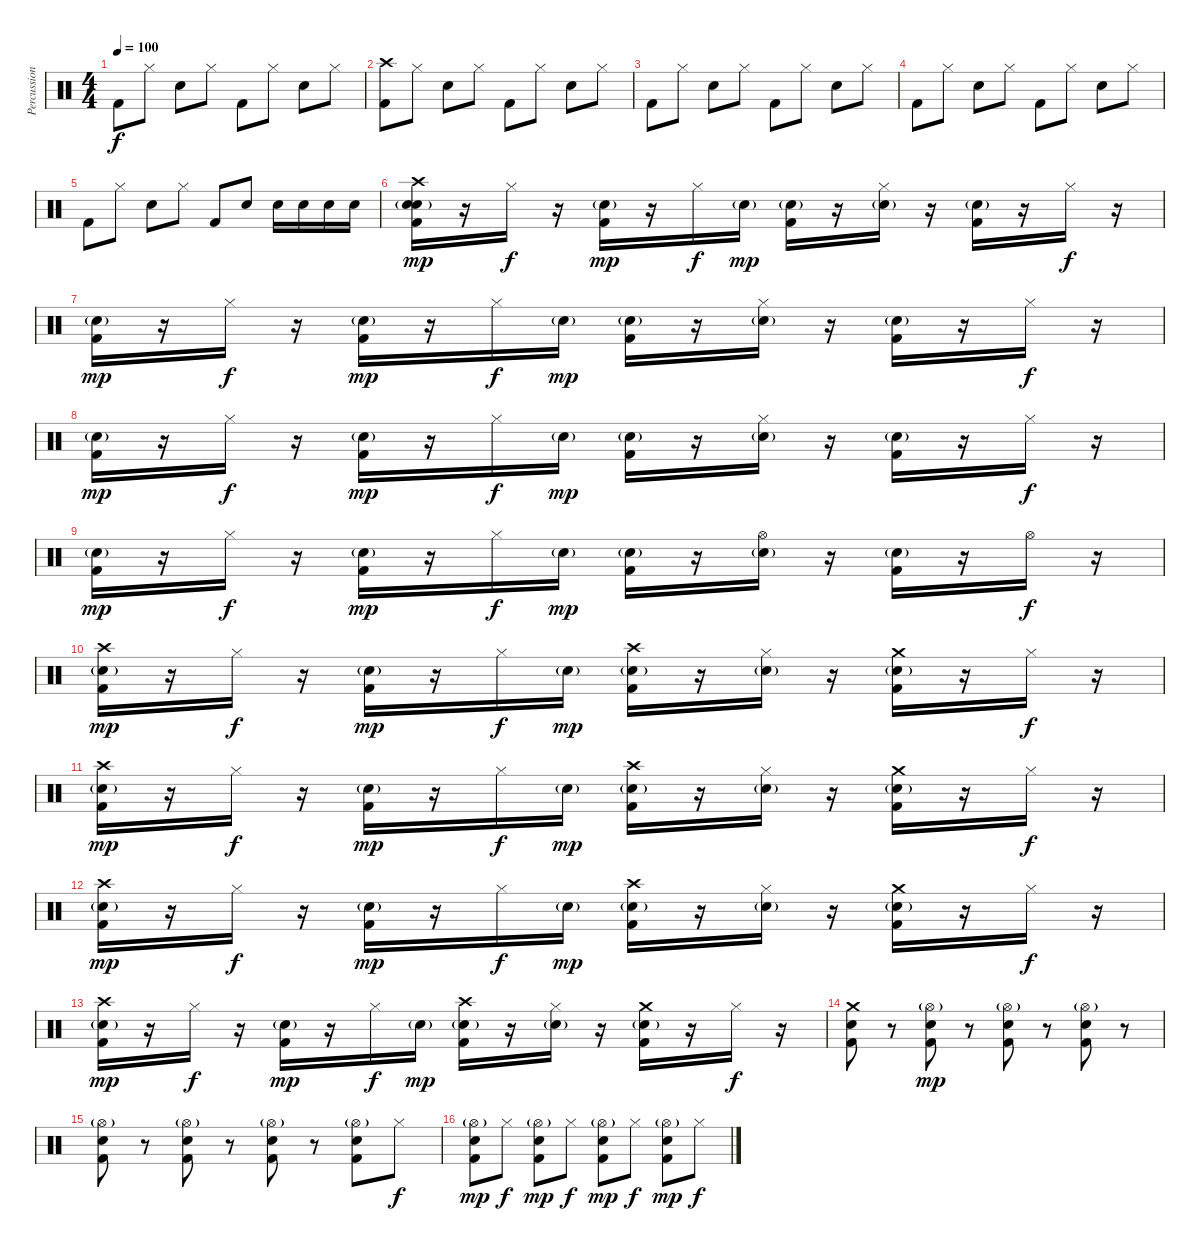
\track ("Percussions" "Percussion") {instrument percussion}
\staff {score}
\articulation defaults
\ts (4 4)
\tempo 100
\clef neutral
\ks c "Kick (hit) 2".8{dy f} "Hi-Hat (closed)".8 "Electric Snare (hit)".8 "Hi-Hat (closed)".8 "Kick (hit) 2".8 "Hi-Hat (closed)".8 "Electric Snare (hit)".8 "Hi-Hat (closed)".8
|
("Crash high (hit)" "Kick (hit) 2").8 "Hi-Hat (closed)".8 "Electric Snare (hit)".8 "Hi-Hat (closed)".8 "Kick (hit) 2".8 "Hi-Hat (closed)".8 "Electric Snare (hit)".8 "Hi-Hat (closed)".8 |
"Kick (hit) 2".8 "Hi-Hat (closed)".8 "Electric Snare (hit)".8 "Hi-Hat (closed)".8 "Kick (hit) 2".8 "Hi-Hat (closed)".8 "Electric Snare (hit)".8 "Hi-Hat (closed)".8 |
"Kick (hit) 2".8 "Hi-Hat (closed)".8 "Electric Snare (hit)".8 "Hi-Hat (closed)".8 "Kick (hit) 2".8 "Hi-Hat (closed)".8 "Electric Snare (hit)".8 "Hi-Hat (closed)".8 |
"Kick (hit) 2".8 "Hi-Hat (closed)".8 "Electric Snare (hit)".8 "Hi-Hat (closed)".8 "Kick (hit) 2".8 "Electric Snare (hit)".8 "Electric Snare (hit)".16 "Electric Snare (hit)".16 "Electric Snare (hit)".16 "Electric Snare (hit)".16 |
("Electric Snare (hit)" "Electric Snare (hit)"{g} "Crash high (hit)" "Kick (hit) 2").16{dy mp} r.16 "Hi-Hat (closed)".16{dy f} r.16 ("Electric Snare (hit)"{g} "Kick (hit) 2").16{dy mp} r.16 "Hi-Hat (closed)".16{dy f} "Electric Snare (hit)"{g}.16{dy mp} ("Electric Snare (hit)"{g} "Kick (hit) 2").16 r.16 ("Electric Snare (hit)"{g} "Hi-Hat (closed)").16 r.16 ("Electric Snare (hit)"{g} "Kick (hit) 2").16 r.16 "Hi-Hat (closed)".16{dy f} r.16 |
("Electric Snare (hit)"{g} "Kick (hit) 2").16{dy mp} r.16 "Hi-Hat (closed)".16{dy f} r.16 ("Electric Snare (hit)"{g} "Kick (hit) 2").16{dy mp} r.16 "Hi-Hat (closed)".16{dy f} "Electric Snare (hit)"{g}.16{dy mp} ("Electric Snare (hit)"{g} "Kick (hit) 2").16 r.16 ("Electric Snare (hit)"{g} "Hi-Hat (closed)").16 r.16 ("Electric Snare (hit)"{g} "Kick (hit) 2").16 r.16 "Hi-Hat (closed)".16{dy f} r.16 |
("Electric Snare (hit)"{g} "Kick (hit) 2").16{dy mp} r.16 "Hi-Hat (closed)".16{dy f} r.16 ("Electric Snare (hit)"{g} "Kick (hit) 2").16{dy mp} r.16 "Hi-Hat (closed)".16{dy f} "Electric Snare (hit)"{g}.16{dy mp} ("Electric Snare (hit)"{g} "Kick (hit) 2").16 r.16 ("Electric Snare (hit)"{g} "Hi-Hat (closed)").16 r.16 ("Electric Snare (hit)"{g} "Kick (hit) 2").16 r.16 "Hi-Hat (closed)".16{dy f} r.16 |
("Electric Snare (hit)"{g} "Kick (hit) 2").16{dy mp} r.16 "Hi-Hat (closed)".16{dy f} r.16 ("Electric Snare (hit)"{g} "Kick (hit) 2").16{dy mp} r.16 "Hi-Hat (closed)".16{dy f} "Electric Snare (hit)"{g}.16{dy mp} ("Electric Snare (hit)"{g} "Kick (hit) 2").16 r.16 ("Electric Snare (hit)"{g} "Hi-Hat (open)").16 r.16 ("Electric Snare (hit)"{g} "Kick (hit) 2").16 r.16 "Hi-Hat (open)".16{dy f} r.16 |
("Electric Snare (hit)"{g} "Crash high (hit)" "Kick (hit) 2").16{dy mp} r.16 "Hi-Hat (closed)".16{dy f} r.16 ("Electric Snare (hit)"{g} "Kick (hit) 2").16{dy mp} r.16 "Hi-Hat (closed)".16{dy f} "Electric Snare (hit)"{g}.16{dy mp} ("Electric Snare (hit)"{g} "Crash high (hit)" "Kick (hit) 2").16 r.16 ("Electric Snare (hit)"{g} "Hi-Hat (closed)").16 r.16 ("Electric Snare (hit)"{g} "Crash medium (hit)" "Kick (hit) 2").16 r.16 "Hi-Hat (closed)".16{dy f} r.16 |
("Electric Snare (hit)"{g} "Crash high (hit)" "Kick (hit) 2").16{dy mp} r.16 "Hi-Hat (closed)".16{dy f} r.16 ("Electric Snare (hit)"{g} "Kick (hit) 2").16{dy mp} r.16 "Hi-Hat (closed)".16{dy f} "Electric Snare (hit)"{g}.16{dy mp} ("Electric Snare (hit)"{g} "Crash high (hit)" "Kick (hit) 2").16 r.16 ("Electric Snare (hit)"{g} "Hi-Hat (closed)").16 r.16 ("Electric Snare (hit)"{g} "Crash medium (hit)" "Kick (hit) 2").16 r.16 "Hi-Hat (closed)".16{dy f} r.16 |
("Electric Snare (hit)"{g} "Crash high (hit)" "Kick (hit) 2").16{dy mp} r.16 "Hi-Hat (closed)".16{dy f} r.16 ("Electric Snare (hit)"{g} "Kick (hit) 2").16{dy mp} r.16 "Hi-Hat (closed)".16{dy f} "Electric Snare (hit)"{g}.16{dy mp} ("Electric Snare (hit)"{g} "Crash high (hit)" "Kick (hit) 2").16 r.16 ("Electric Snare (hit)"{g} "Hi-Hat (closed)").16 r.16 ("Electric Snare (hit)"{g} "Crash medium (hit)" "Kick (hit) 2").16 r.16 "Hi-Hat (closed)".16{dy f} r.16 |
("Electric Snare (hit)"{g} "Crash high (hit)" "Kick (hit) 2").16{dy mp} r.16 "Hi-Hat (closed)".16{dy f} r.16 ("Electric Snare (hit)"{g} "Kick (hit) 2").16{dy mp} r.16 "Hi-Hat (closed)".16{dy f} "Electric Snare (hit)"{g}.16{dy mp} ("Electric Snare (hit)"{g} "Crash high (hit)" "Kick (hit) 2").16 r.16 ("Electric Snare (hit)"{g} "Hi-Hat (closed)").16 r.16 ("Electric Snare (hit)"{g} "Crash medium (hit)" "Kick (hit) 2").16 r.16 "Hi-Hat (closed)".16{dy f} r.16 |
("Crash medium (hit)" "Kick (hit) 2" "Electric Snare (hit)").8 r.8 ("Hi-Hat (open)"{g} "Kick (hit) 2" "Electric Snare (hit)").8{dy mp} r.8 ("Hi-Hat (open)"{g} "Kick (hit) 2" "Electric Snare (hit)").8 r.8 ("Hi-Hat (open)"{g} "Kick (hit) 2" "Electric Snare (hit)").8 r.8 |
("Hi-Hat (open)"{g} "Kick (hit) 2" "Electric Snare (hit)").8 r.8 ("Hi-Hat (open)"{g} "Kick (hit) 2" "Electric Snare (hit)").8 r.8 ("Hi-Hat (open)"{g} "Kick (hit) 2" "Electric Snare (hit)").8 r.8 ("Hi-Hat (open)"{g} "Kick (hit) 2" "Electric Snare (hit)").8 "Hi-Hat (closed)".8{dy f} |
("Hi-Hat (open)"{g} "Kick (hit) 2" "Electric Snare (hit)").8{dy mp} "Hi-Hat (closed)".8{dy f} ("Hi-Hat (open)"{g} "Kick (hit) 2" "Electric Snare (hit)").8{dy mp} "Hi-Hat (closed)".8{dy f} ("Hi-Hat (open)"{g} "Kick (hit) 2" "Electric Snare (hit)").8{dy mp} "Hi-Hat (closed)".8{dy f} ("Hi-Hat (open)"{g} "Kick (hit) 2" "Electric Snare (hit)").8{dy mp} "Hi-Hat (closed)".8{dy f}
